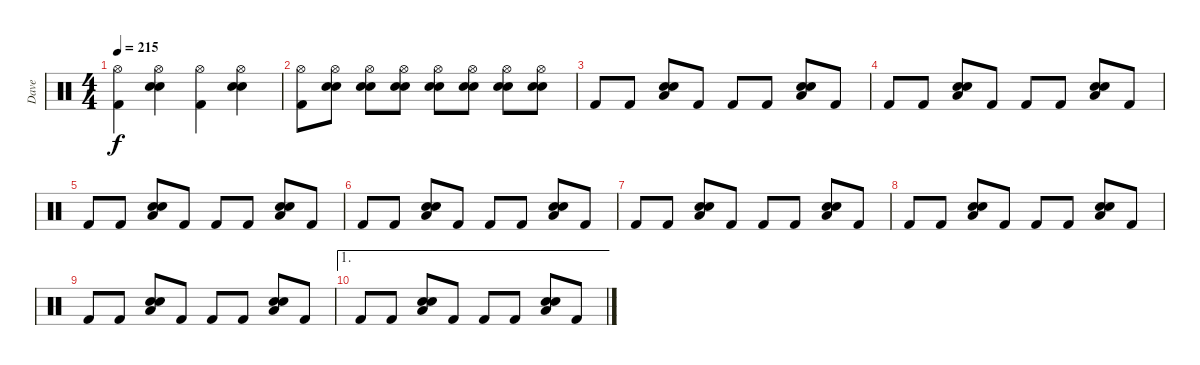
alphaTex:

\track ("Dave" "Dave") {instrument percussion}
\staff {score}
\articulation defaults
\ts (4 4)
\tempo 215
\clef neutral
\ks c
("Hi-Hat (open)" "Kick (hit) 2").4{dy f} ("Hi-Hat (open)" "Electric Snare (hit)" "Electric Snare (hit)").4 ("Hi-Hat (open)" "Kick (hit) 2").4 ("Hi-Hat (open)" "Electric Snare (hit)" "Electric Snare (hit)").4 |
("Hi-Hat (open)" "Kick (hit) 2").8 ("Hi-Hat (open)" "Electric Snare (hit)" "Electric Snare (hit)").8 ("Hi-Hat (open)" "Electric Snare (hit)" "Electric Snare (hit)").8 ("Hi-Hat (open)" "Electric Snare (hit)" "Electric Snare (hit)").8 ("Hi-Hat (open)" "Electric Snare (hit)" "Electric Snare (hit)").8 ("Hi-Hat (open)" "Electric Snare (hit)" "Electric Snare (hit)").8 ("Hi-Hat (open)" "Electric Snare (hit)" "Electric Snare (hit)").8 ("Hi-Hat (open)" "Electric Snare (hit)" "Electric Snare (hit)").8 |
"Kick (hit) 2".8 "Kick (hit) 2".8 ("Low Floor Tom (hit)" "Electric Snare (hit)" "Electric Snare (hit)").8 "Kick (hit) 2".8 "Kick (hit) 2".8 "Kick (hit) 2".8 ("Low Floor Tom (hit)" "Electric Snare (hit)" "Electric Snare (hit)").8 "Kick (hit) 2".8 |
"Kick (hit) 2".8 "Kick (hit) 2".8 ("Low Floor Tom (hit)" "Electric Snare (hit)" "Electric Snare (hit)").8 "Kick (hit) 2".8 "Kick (hit) 2".8 "Kick (hit) 2".8 ("Low Floor Tom (hit)" "Electric Snare (hit)" "Electric Snare (hit)").8 "Kick (hit) 2".8 |
"Kick (hit) 2".8 "Kick (hit) 2".8 ("Low Floor Tom (hit)" "Electric Snare (hit)" "Electric Snare (hit)").8 "Kick (hit) 2".8 "Kick (hit) 2".8 "Kick (hit) 2".8 ("Low Floor Tom (hit)" "Electric Snare (hit)" "Electric Snare (hit)").8 "Kick (hit) 2".8 |
"Kick (hit) 2".8 "Kick (hit) 2".8 ("Low Floor Tom (hit)" "Electric Snare (hit)" "Electric Snare (hit)").8 "Kick (hit) 2".8 "Kick (hit) 2".8 "Kick (hit) 2".8 ("Low Floor Tom (hit)" "Electric Snare (hit)" "Electric Snare (hit)").8 "Kick (hit) 2".8 |
"Kick (hit) 2".8 "Kick (hit) 2".8 ("Low Floor Tom (hit)" "Electric Snare (hit)" "Electric Snare (hit)").8 "Kick (hit) 2".8 "Kick (hit) 2".8 "Kick (hit) 2".8 ("Low Floor Tom (hit)" "Electric Snare (hit)" "Electric Snare (hit)").8 "Kick (hit) 2".8 |
"Kick (hit) 2".8 "Kick (hit) 2".8 ("Low Floor Tom (hit)" "Electric Snare (hit)" "Electric Snare (hit)").8 "Kick (hit) 2".8 "Kick (hit) 2".8 "Kick (hit) 2".8 ("Low Floor Tom (hit)" "Electric Snare (hit)" "Electric Snare (hit)").8 "Kick (hit) 2".8 |
"Kick (hit) 2".8 "Kick (hit) 2".8 ("Low Floor Tom (hit)" "Electric Snare (hit)" "Electric Snare (hit)").8 "Kick (hit) 2".8 "Kick (hit) 2".8 "Kick (hit) 2".8 ("Low Floor Tom (hit)" "Electric Snare (hit)" "Electric Snare (hit)").8 "Kick (hit) 2".8 |
\ae 1 "Kick (hit) 2".8 "Kick (hit) 2".8
("Low Floor Tom (hit)" "Electric Snare (hit)" "Electric Snare (hit)").8 "Kick (hit) 2".8 "Kick (hit) 2".8 "Kick (hit) 2".8 ("Low Floor Tom (hit)" "Electric Snare (hit)" "Electric Snare (hit)").8 "Kick (hit) 2".8
